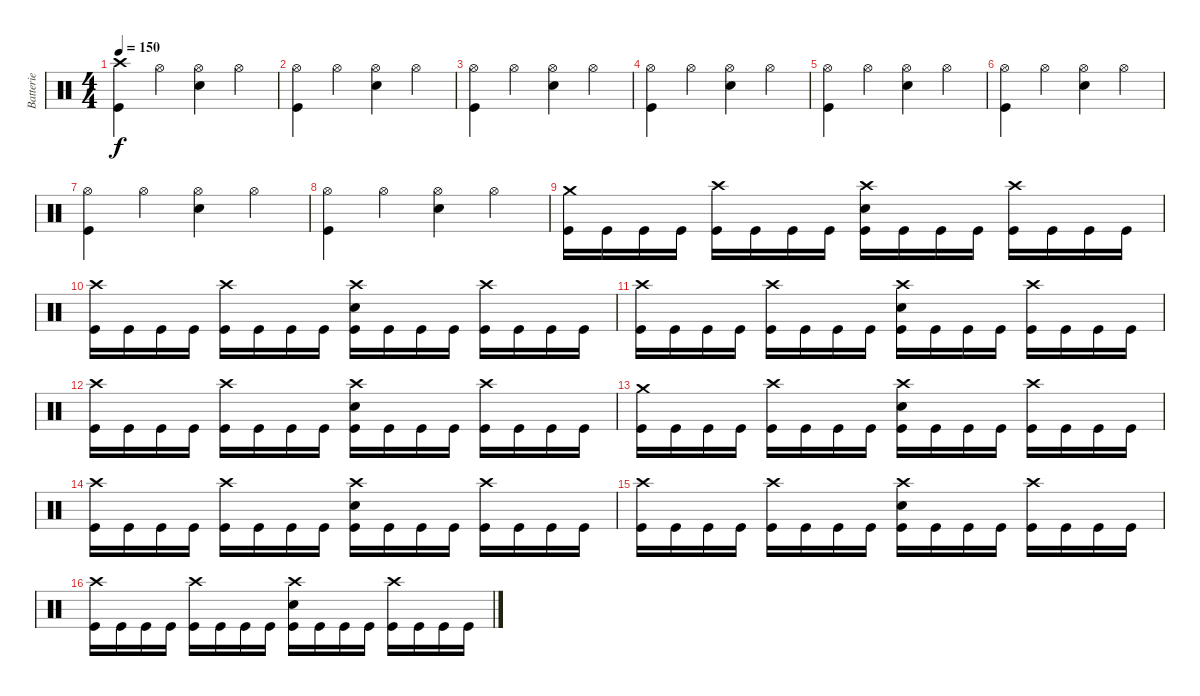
\track ("Batterie" "Batterie") {instrument percussion}
\staff {score}
\articulation defaults
\ts (4 4)
\tempo 150
\clef neutral
\ks c
("Crash high (hit)" "Kick (hit)").4{dy f} "Hi-Hat (open)".4 ("Hi-Hat (open)" "Electric Snare (hit)").4 "Hi-Hat (open)".4 |
("Hi-Hat (open)" "Kick (hit)").4 "Hi-Hat (open)".4 ("Hi-Hat (open)" "Electric Snare (hit)").4 "Hi-Hat (open)".4 |
("Hi-Hat (open)" "Kick (hit)").4 "Hi-Hat (open)".4 ("Hi-Hat (open)" "Electric Snare (hit)").4 "Hi-Hat (open)".4 |
("Hi-Hat (open)" "Kick (hit)").4 "Hi-Hat (open)".4 ("Hi-Hat (open)" "Electric Snare (hit)").4 "Hi-Hat (open)".4 |
("Hi-Hat (open)" "Kick (hit)").4 "Hi-Hat (open)".4 ("Hi-Hat (open)" "Electric Snare (hit)").4 "Hi-Hat (open)".4 |
("Hi-Hat (open)" "Kick (hit)").4 "Hi-Hat (open)".4 ("Hi-Hat (open)" "Electric Snare (hit)").4 "Hi-Hat (open)".4 |
("Hi-Hat (open)" "Kick (hit)").4 "Hi-Hat (open)".4 ("Hi-Hat (open)" "Electric Snare (hit)").4 "Hi-Hat (open)".4 |
("Hi-Hat (open)" "Kick (hit)").4 "Hi-Hat (open)".4 ("Hi-Hat (open)" "Electric Snare (hit)").4 "Hi-Hat (open)".4 |
("Crash medium (hit)" "Kick (hit)").16 "Kick (hit)".16 "Kick (hit)".16 "Kick (hit)".16 ("Crash high (hit)" "Kick (hit)").16 "Kick (hit)".16 "Kick (hit)".16 "Kick (hit)".16 ("Crash high (hit)" "Electric Snare (hit)" "Kick (hit)").16 "Kick (hit)".16 "Kick (hit)".16 "Kick (hit)".16 ("Crash high (hit)" "Kick (hit)").16 "Kick (hit)".16 "Kick (hit)".16 "Kick (hit)".16 |
("Crash high (hit)" "Kick (hit)").16 "Kick (hit)".16 "Kick (hit)".16 "Kick (hit)".16 ("Crash high (hit)" "Kick (hit)").16 "Kick (hit)".16 "Kick (hit)".16 "Kick (hit)".16 ("Crash high (hit)" "Electric Snare (hit)" "Kick (hit)").16 "Kick (hit)".16 "Kick (hit)".16 "Kick (hit)".16 ("Crash high (hit)" "Kick (hit)").16 "Kick (hit)".16 "Kick (hit)".16 "Kick (hit)".16 |
("Crash high (hit)" "Kick (hit)").16 "Kick (hit)".16 "Kick (hit)".16 "Kick (hit)".16 ("Crash high (hit)" "Kick (hit)").16 "Kick (hit)".16 "Kick (hit)".16 "Kick (hit)".16 ("Crash high (hit)" "Electric Snare (hit)" "Kick (hit)").16 "Kick (hit)".16 "Kick (hit)".16 "Kick (hit)".16 ("Crash high (hit)" "Kick (hit)").16 "Kick (hit)".16 "Kick (hit)".16 "Kick (hit)".16 |
("Crash high (hit)" "Kick (hit)").16 "Kick (hit)".16 "Kick (hit)".16 "Kick (hit)".16 ("Crash high (hit)" "Kick (hit)").16 "Kick (hit)".16 "Kick (hit)".16 "Kick (hit)".16 ("Crash high (hit)" "Electric Snare (hit)" "Kick (hit)").16 "Kick (hit)".16 "Kick (hit)".16 "Kick (hit)".16 ("Crash high (hit)" "Kick (hit)").16 "Kick (hit)".16 "Kick (hit)".16 "Kick (hit)".16 |
("Crash medium (hit)" "Kick (hit)").16 "Kick (hit)".16 "Kick (hit)".16 "Kick (hit)".16 ("Crash high (hit)" "Kick (hit)").16 "Kick (hit)".16 "Kick (hit)".16 "Kick (hit)".16 ("Crash high (hit)" "Electric Snare (hit)" "Kick (hit)").16 "Kick (hit)".16 "Kick (hit)".16 "Kick (hit)".16 ("Crash high (hit)" "Kick (hit)").16 "Kick (hit)".16 "Kick (hit)".16 "Kick (hit)".16 |
("Crash high (hit)" "Kick (hit)").16 "Kick (hit)".16 "Kick (hit)".16 "Kick (hit)".16 ("Crash high (hit)" "Kick (hit)").16 "Kick (hit)".16 "Kick (hit)".16 "Kick (hit)".16 ("Crash high (hit)" "Electric Snare (hit)" "Kick (hit)").16 "Kick (hit)".16 "Kick (hit)".16 "Kick (hit)".16 ("Crash high (hit)" "Kick (hit)").16 "Kick (hit)".16 "Kick (hit)".16 "Kick (hit)".16 |
("Crash high (hit)" "Kick (hit)").16 "Kick (hit)".16 "Kick (hit)".16 "Kick (hit)".16 ("Crash high (hit)" "Kick (hit)").16 "Kick (hit)".16 "Kick (hit)".16 "Kick (hit)".16 ("Crash high (hit)" "Electric Snare (hit)" "Kick (hit)").16 "Kick (hit)".16 "Kick (hit)".16 "Kick (hit)".16 ("Crash high (hit)" "Kick (hit)").16 "Kick (hit)".16 "Kick (hit)".16 "Kick (hit)".16 |
("Crash high (hit)" "Kick (hit)").16 "Kick (hit)".16 "Kick (hit)".16 "Kick (hit)".16 ("Crash high (hit)" "Kick (hit)").16 "Kick (hit)".16 "Kick (hit)".16 "Kick (hit)".16 ("Crash high (hit)" "Electric Snare (hit)" "Kick (hit)").16 "Kick (hit)".16 "Kick (hit)".16 "Kick (hit)".16 ("Crash high (hit)" "Kick (hit)").16 "Kick (hit)".16 "Kick (hit)".16 "Kick (hit)".16
